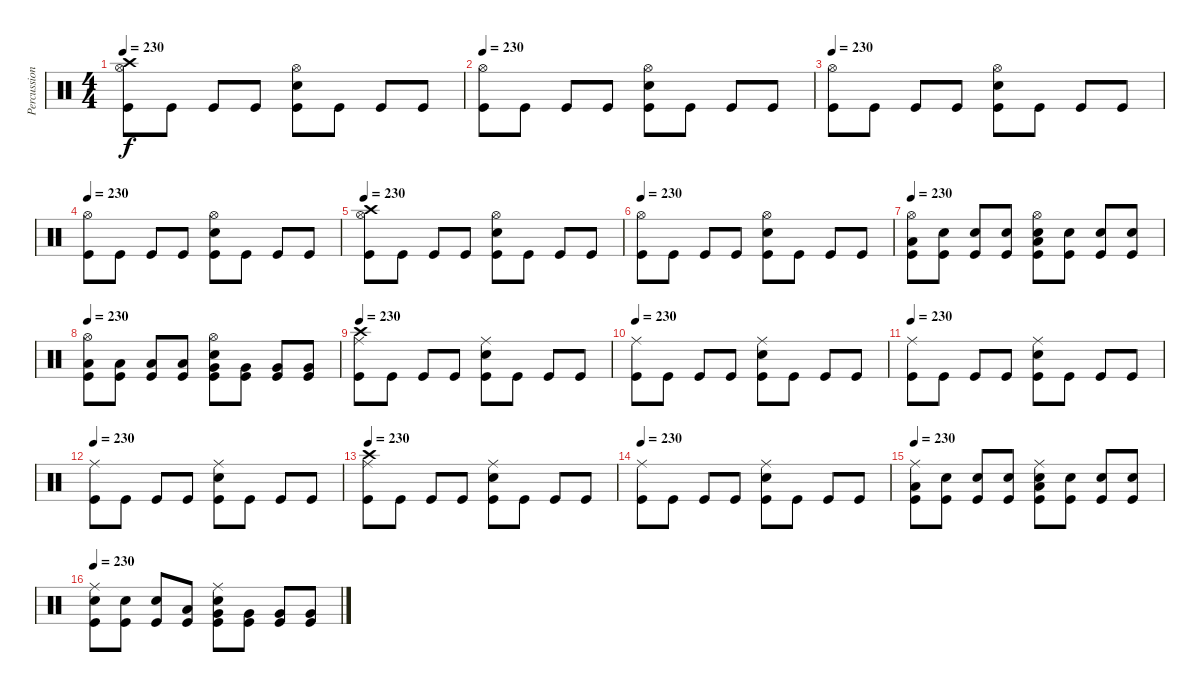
\track ("Percussion" "Percussion") {instrument percussion}
\staff {score}
\articulation defaults
\ts (4 4)
\tempo 230
\clef neutral
\ks c
("Crash high (hit)" "Hi-Hat (open)" "Kick (hit)").8{dy f} "Kick (hit)".8 "Kick (hit)".8 "Kick (hit)".8 ("Electric Snare (hit)" "Hi-Hat (open)" "Kick (hit)").8 "Kick (hit)".8 "Kick (hit)".8 "Kick (hit)".8 |
\tempo 230
("Hi-Hat (open)" "Kick (hit)").8 "Kick (hit)".8 "Kick (hit)".8 "Kick (hit)".8 ("Electric Snare (hit)" "Hi-Hat (open)" "Kick (hit)").8 "Kick (hit)".8 "Kick (hit)".8 "Kick (hit)".8 |
\tempo 230
("Hi-Hat (open)" "Kick (hit)").8 "Kick (hit)".8 "Kick (hit)".8 "Kick (hit)".8 ("Electric Snare (hit)" "Hi-Hat (open)" "Kick (hit)").8 "Kick (hit)".8 "Kick (hit)".8 "Kick (hit)".8 |
\tempo 230
("Hi-Hat (open)" "Kick (hit)").8 "Kick (hit)".8 "Kick (hit)".8 "Kick (hit)".8 ("Electric Snare (hit)" "Hi-Hat (open)" "Kick (hit)").8 "Kick (hit)".8 "Kick (hit)".8 "Kick (hit)".8 |
\tempo 230
("Crash high (hit)" "Hi-Hat (open)" "Kick (hit)").8 "Kick (hit)".8 "Kick (hit)".8 "Kick (hit)".8 ("Electric Snare (hit)" "Hi-Hat (open)" "Kick (hit)").8 "Kick (hit)".8 "Kick (hit)".8 "Kick (hit)".8 |
\tempo 230
("Hi-Hat (open)" "Kick (hit)").8 "Kick (hit)".8 "Kick (hit)".8 "Kick (hit)".8 ("Electric Snare (hit)" "Hi-Hat (open)" "Kick (hit)").8 "Kick (hit)".8 "Kick (hit)".8 "Kick (hit)".8 |
\tempo 230
("Low Floor Tom (hit)" "Hi-Hat (open)" "Kick (hit)").8 ("Electric Snare (hit)" "Kick (hit)").8 ("Electric Snare (hit)" "Kick (hit)").8 ("Electric Snare (hit)" "Kick (hit)").8 ("Low Floor Tom (hit)" "Electric Snare (hit)" "Hi-Hat (open)" "Kick (hit)").8 ("Electric Snare (hit)" "Kick (hit)").8 ("Electric Snare (hit)" "Kick (hit)").8 ("Electric Snare (hit)" "Kick (hit)").8 |
\tempo 230
("Low Tom (hit)" "Hi-Hat (open)" "Kick (hit)").8 ("Low Tom (hit)" "Kick (hit)").8 ("Low Tom (hit)" "Kick (hit)").8 ("Low Tom (hit)" "Kick (hit)").8 ("Very Low Tom (hit)" "Electric Snare (hit)" "Hi-Hat (open)" "Kick (hit)").8 ("Very Low Tom (hit)" "Kick (hit)").8 ("Very Low Tom (hit)" "Kick (hit)").8 ("Very Low Tom (hit)" "Kick (hit)").8 |
\tempo 230
("Crash high (hit)" "Ride (middle)" "Kick (hit)").8 "Kick (hit)".8 "Kick (hit)".8 "Kick (hit)".8 ("Electric Snare (hit)" "Ride (middle)" "Kick (hit)").8 "Kick (hit)".8 "Kick (hit)".8 "Kick (hit)".8 |
\tempo 230
("Ride (middle)" "Kick (hit)").8 "Kick (hit)".8 "Kick (hit)".8 "Kick (hit)".8 ("Electric Snare (hit)" "Ride (middle)" "Kick (hit)").8 "Kick (hit)".8 "Kick (hit)".8 "Kick (hit)".8 |
\tempo 230
("Ride (middle)" "Kick (hit)").8 "Kick (hit)".8 "Kick (hit)".8 "Kick (hit)".8 ("Electric Snare (hit)" "Ride (middle)" "Kick (hit)").8 "Kick (hit)".8 "Kick (hit)".8 "Kick (hit)".8 |
\tempo 230
("Ride (middle)" "Kick (hit)").8 "Kick (hit)".8 "Kick (hit)".8 "Kick (hit)".8 ("Electric Snare (hit)" "Ride (middle)" "Kick (hit)").8 "Kick (hit)".8 "Kick (hit)".8 "Kick (hit)".8 |
\tempo 230
("Crash high (hit)" "Ride (middle)" "Kick (hit)").8 "Kick (hit)".8 "Kick (hit)".8 "Kick (hit)".8 ("Electric Snare (hit)" "Ride (middle)" "Kick (hit)").8 "Kick (hit)".8 "Kick (hit)".8 "Kick (hit)".8 |
\tempo 230
("Ride (middle)" "Kick (hit)").8 "Kick (hit)".8 "Kick (hit)".8 "Kick (hit)".8 ("Electric Snare (hit)" "Ride (middle)" "Kick (hit)").8 "Kick (hit)".8 "Kick (hit)".8 "Kick (hit)".8 |
\tempo 230
("Low Floor Tom (hit)" "Ride (middle)" "Kick (hit)").8 ("Electric Snare (hit)" "Kick (hit)").8 ("Electric Snare (hit)" "Kick (hit)").8 ("Electric Snare (hit)" "Kick (hit)").8 ("Low Floor Tom (hit)" "Electric Snare (hit)" "Ride (middle)" "Kick (hit)").8 ("Electric Snare (hit)" "Kick (hit)").8 ("Electric Snare (hit)" "Kick (hit)").8 ("Electric Snare (hit)" "Kick (hit)").8 |
\tempo 230
("Electric Snare (hit)" "Ride (middle)" "Kick (hit)").8 ("Electric Snare (hit)" "Kick (hit)").8 ("Electric Snare (hit)" "Kick (hit)").8 ("Low Tom (hit)" "Kick (hit)").8 ("Very Low Tom (hit)" "Electric Snare (hit)" "Ride (middle)" "Kick (hit)").8 ("Very Low Tom (hit)" "Kick (hit)").8 ("Very Low Tom (hit)" "Kick (hit)").8 ("Very Low Tom (hit)" "Kick (hit)").8
